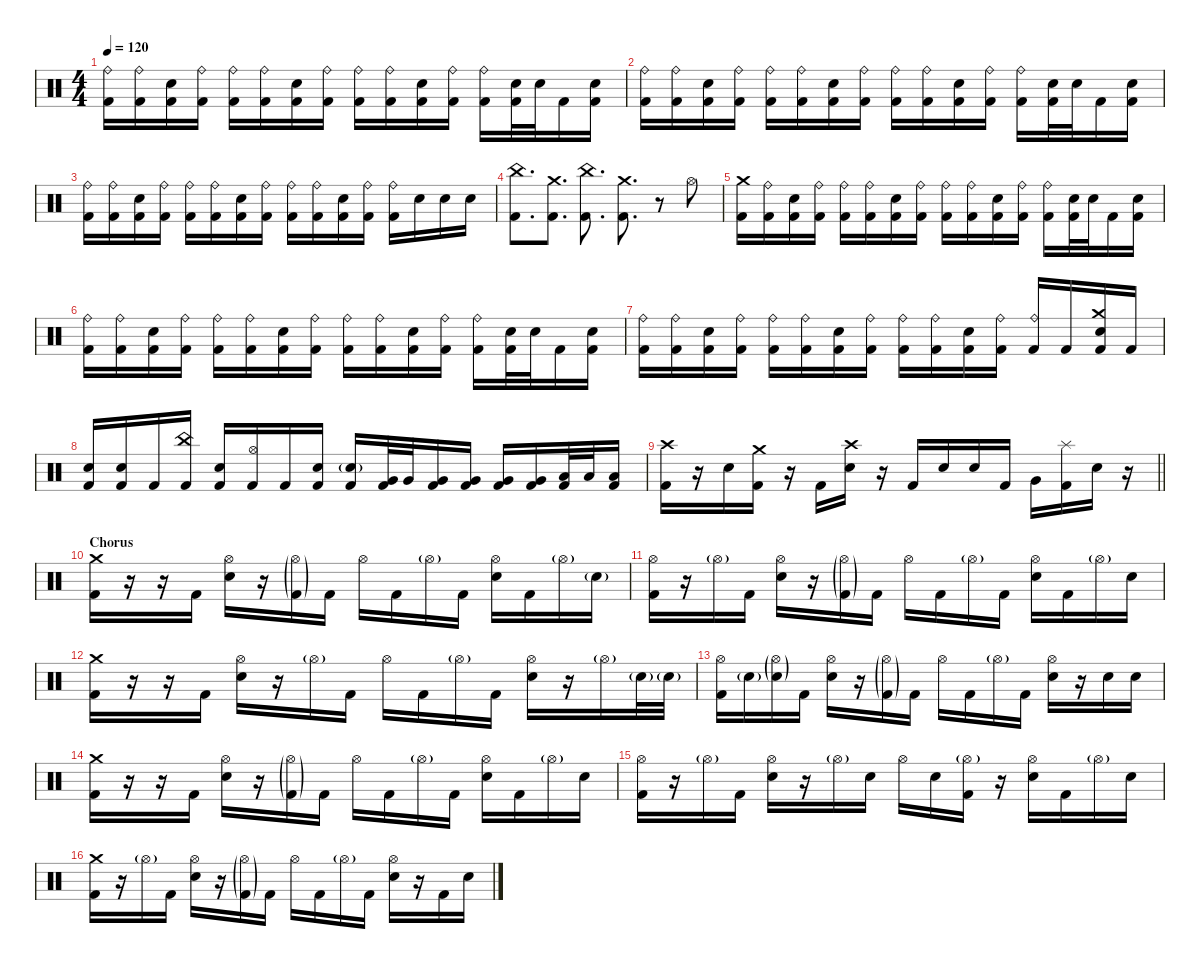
\defaultSystemsLayout 4
\hideDynamics
\bracketExtendMode nobrackets
\singleTrackTrackNamePolicy hidden
\multiTrackTrackNamePolicy hidden
\firstSystemTrackNameMode fullname
\firstSystemTrackNameOrientation horizontal
\otherSystemsTrackNameOrientation horizontal
\track ("Martin Axenrot - Drums" "drm.") {instrument percussion}
\staff {score}
\articulation defaults
\ts (4 4)
\tempo 120
\clef neutral
\ks c
("Ride (bell)" "Kick (hit) 2").16{dy mf beam Down} ("Ride (bell)" "Kick (hit) 2").16{dy f beam Down} ("Snare (hit) 2" "Kick (hit) 2").16{beam Down} ("Ride (bell)" "Kick (hit) 2").16{beam Down} ("Ride (bell)" "Kick (hit) 2").16{dy mf beam Down} ("Ride (bell)" "Kick (hit) 2").16{dy f beam Down} ("Snare (hit) 2" "Kick (hit) 2").16{beam Down} ("Ride (bell)" "Kick (hit) 2").16{beam Down} ("Ride (bell)" "Kick (hit) 2").16{dy mf beam Down} ("Ride (bell)" "Kick (hit) 2").16{dy f beam Down} ("Snare (hit) 2" "Kick (hit) 2").16{beam Down} ("Ride (bell)" "Kick (hit) 2").16{dy mf beam Down} ("Ride (bell)" "Kick (hit) 2").16{dy f beam Down} ("Snare (hit) 2" "Kick (hit) 2").32{beam Down} "Snare (hit) 2".32{beam Down} "Kick (hit) 2".16{beam Down} ("Snare (hit) 2" "Kick (hit) 2").16{beam Down} |
("Ride (bell)" "Kick (hit) 2").16{dy mf beam Down} ("Ride (bell)" "Kick (hit) 2").16{dy f beam Down} ("Snare (hit) 2" "Kick (hit) 2").16{beam Down} ("Ride (bell)" "Kick (hit) 2").16{beam Down} ("Ride (bell)" "Kick (hit) 2").16{dy mf beam Down} ("Ride (bell)" "Kick (hit) 2").16{dy f beam Down} ("Snare (hit) 2" "Kick (hit) 2").16{beam Down} ("Ride (bell)" "Kick (hit) 2").16{beam Down} ("Ride (bell)" "Kick (hit) 2").16{dy mf beam Down} ("Ride (bell)" "Kick (hit) 2").16{dy f beam Down} ("Snare (hit) 2" "Kick (hit) 2").16{beam Down} ("Ride (bell)" "Kick (hit) 2").16{dy mf beam Down} ("Ride (bell)" "Kick (hit) 2").16{dy f beam Down} ("Snare (hit) 2" "Kick (hit) 2").32{beam Down} "Snare (hit) 2".32{beam Down} "Kick (hit) 2".16{beam Down} ("Snare (hit) 2" "Kick (hit) 2").16{beam Down} |
("Ride (bell)" "Kick (hit) 2").16{dy mf beam Down} ("Ride (bell)" "Kick (hit) 2").16{dy f beam Down} ("Snare (hit) 2" "Kick (hit) 2").16{beam Down} ("Ride (bell)" "Kick (hit) 2").16{beam Down} ("Ride (bell)" "Kick (hit) 2").16{dy mf beam Down} ("Ride (bell)" "Kick (hit) 2").16{dy f beam Down} ("Snare (hit) 2" "Kick (hit) 2").16{beam Down} ("Ride (bell)" "Kick (hit) 2").16{beam Down} ("Ride (bell)" "Kick (hit) 2").16{dy mf beam Down} ("Ride (bell)" "Kick (hit) 2").16{dy f beam Down} ("Snare (hit) 2" "Kick (hit) 2").16{beam Down} ("Ride (bell)" "Kick (hit) 2").16{dy mf beam Down} ("Ride (bell)" "Kick (hit) 2").16{dy f beam Down} "Snare (hit) 2".16{beam Down} "Snare (hit) 2".16{beam Down} "Snare (hit) 2".16{beam Down} |
("China (hit)" "Kick (hit) 2").8{d beam Down} ("Crash medium (hit)" "Kick (hit) 2").8{d beam Down} ("China (hit)" "Kick (hit) 2").8{d beam Down} ("Crash medium (hit)" "Kick (hit) 2").8{d beam Down} r.8{beam Down} "Hi-Hat (open)".8{beam Down} |
("Crash medium (hit)" "Kick (hit) 2").16{beam Down} ("Ride (bell)" "Kick (hit) 2").16{beam Down} ("Snare (hit) 2" "Kick (hit) 2").16{beam Down} ("Ride (bell)" "Kick (hit) 2").16{beam Down} ("Ride (bell)" "Kick (hit) 2").16{dy mf beam Down} ("Ride (bell)" "Kick (hit) 2").16{dy f beam Down} ("Snare (hit) 2" "Kick (hit) 2").16{beam Down} ("Ride (bell)" "Kick (hit) 2").16{beam Down} ("Ride (bell)" "Kick (hit) 2").16{dy mf beam Down} ("Ride (bell)" "Kick (hit) 2").16{dy f beam Down} ("Snare (hit) 2" "Kick (hit) 2").16{beam Down} ("Ride (bell)" "Kick (hit) 2").16{dy mf beam Down} ("Ride (bell)" "Kick (hit) 2").16{dy f beam Down} ("Snare (hit) 2" "Kick (hit) 2").32{beam Down} "Snare (hit) 2".32{beam Down} "Kick (hit) 2".16{beam Down} ("Snare (hit) 2" "Kick (hit) 2").16{beam Down} |
("Ride (bell)" "Kick (hit) 2").16{dy mf beam Down} ("Ride (bell)" "Kick (hit) 2").16{dy f beam Down} ("Snare (hit) 2" "Kick (hit) 2").16{beam Down} ("Ride (bell)" "Kick (hit) 2").16{beam Down} ("Ride (bell)" "Kick (hit) 2").16{dy mf beam Down} ("Ride (bell)" "Kick (hit) 2").16{dy f beam Down} ("Snare (hit) 2" "Kick (hit) 2").16{beam Down} ("Ride (bell)" "Kick (hit) 2").16{beam Down} ("Ride (bell)" "Kick (hit) 2").16{dy mf beam Down} ("Ride (bell)" "Kick (hit) 2").16{dy f beam Down} ("Snare (hit) 2" "Kick (hit) 2").16{beam Down} ("Ride (bell)" "Kick (hit) 2").16{dy mf beam Down} ("Ride (bell)" "Kick (hit) 2").16{dy f beam Down} ("Snare (hit) 2" "Kick (hit) 2").32{beam Down} "Snare (hit) 2".32{beam Down} "Kick (hit) 2".16{beam Down} ("Snare (hit) 2" "Kick (hit) 2").16{beam Down} |
("Ride (bell)" "Kick (hit) 2").16{dy mf beam Down} ("Ride (bell)" "Kick (hit) 2").16{dy f beam Down} ("Snare (hit) 2" "Kick (hit) 2").16{beam Down} ("Ride (bell)" "Kick (hit) 2").16{beam Down} ("Ride (bell)" "Kick (hit) 2").16{dy mf beam Down} ("Ride (bell)" "Kick (hit) 2").16{dy f beam Down} ("Snare (hit) 2" "Kick (hit) 2").16{beam Down} ("Ride (bell)" "Kick (hit) 2").16{beam Down} ("Ride (bell)" "Kick (hit) 2").16{dy mf beam Down} ("Ride (bell)" "Kick (hit) 2").16{dy f beam Down} ("Snare (hit) 2" "Kick (hit) 2").16{beam Down} ("Ride (bell)" "Kick (hit) 2").16{dy mf beam Down} ("Ride (bell)" "Kick (hit) 2").16{beam Up} "Kick (hit) 2".16{dy f beam Up} ("Crash medium (hit)" "Snare (hit) 2" "Kick (hit) 2").16{beam Up} "Kick (hit) 2".16{beam Up} |
("Snare (hit) 2" "Kick (hit) 2").16{beam Up} ("Snare (hit) 2" "Kick (hit) 2").16{beam Up} "Kick (hit) 2".16{beam Up} ("China (hit)" "Kick (hit) 2").16{dy mf beam Up} ("Snare (hit) 2" "Kick (hit) 2").16{dy f beam Up} ("Hi-Hat (open)" "Kick (hit) 2").16{beam Up} "Kick (hit) 2".16{beam Up} ("Snare (hit) 2" "Kick (hit) 2").16{beam Up} ("Snare (hit) 2"{g} "Kick (hit) 2").16{beam Up} ("Very Low Tom (hit)" "Kick (hit) 2").32{dy ff beam Up} "Very Low Tom (hit)".32{dy mf beam Up} ("Very Low Tom (hit)" "Kick (hit) 2").16{dy f beam Up} ("Very Low Tom (hit)" "Kick (hit) 2").16{dy ff beam Up} ("Very Low Tom (hit)" "Kick (hit) 2").16{dy fff beam Up} ("Very Low Tom (hit)" "Kick (hit) 2").16{beam Up} ("Low Floor Tom (hit)" "Kick (hit) 2").32{dy ff beam Up} "Low Floor Tom (hit)".32{dy mf beam Up} ("Low Floor Tom (hit)" "Kick (hit) 2").16{dy f beam Up} |
\barLineRight lightlight
("Crash high (hit)" "Kick (hit) 2").16{beam Down} r.16{beam Down} "Snare (hit) 2".16{beam Down} ("Crash medium (hit)" "Kick (hit) 2").16{beam Down} r.16{beam Down} "Kick (hit) 2".16{beam Down} ("Crash high (hit)" "Snare (hit) 2").16{beam Down} r.16{beam Down} "Kick (hit) 2".16{beam Up} "Snare (hit) 2".16{beam Up} "Snare (hit) 2".16{beam Up} "Kick (hit) 2".16{beam Up} "Very Low Tom (hit)".16{dy fff beam Down} ("Splash (hit)" "Kick (hit) 2").16{dy f beam Down} "Snare (hit) 2".16{beam Down} r.16{beam Down} |
\section ("" "Chorus")
("Crash medium (hit)" "Kick (hit) 2").16{beam Down} r.16{beam Down} r.16{beam Down} "Kick (hit) 2".16{beam Down} ("Hi-Hat (open)" "Snare (hit) 2").16{beam Down} r.16{beam Down} ("Hi-Hat (open)"{g} "Kick (hit) 2"{g}).16{dy mf beam Down} "Kick (hit) 2".16{dy f beam Down} "Hi-Hat (open)".16{beam Down} "Kick (hit) 2".16{beam Down} "Hi-Hat (open)"{g}.16{dy mf beam Down} "Kick (hit) 2".16{dy f beam Down} ("Hi-Hat (open)" "Snare (hit) 2").16{beam Down} "Kick (hit) 2".16{beam Down} "Hi-Hat (open)"{g}.16{dy mf beam Down} "Snare (hit) 2"{g}.16{beam Down} |
("Hi-Hat (open)" "Kick (hit) 2").16{dy f beam Down} r.16{beam Down} "Hi-Hat (open)"{g}.16{dy mf beam Down} "Kick (hit) 2".16{dy f beam Down} ("Hi-Hat (open)" "Snare (hit) 2").16{beam Down} r.16{beam Down} ("Hi-Hat (open)"{g} "Kick (hit) 2"{g}).16{dy mf beam Down} "Kick (hit) 2".16{dy f beam Down} "Hi-Hat (open)".16{beam Down} "Kick (hit) 2".16{beam Down} "Hi-Hat (open)"{g}.16{dy mf beam Down} "Kick (hit) 2".16{dy f beam Down} ("Hi-Hat (open)" "Snare (hit) 2").16{beam Down} "Kick (hit) 2".16{beam Down} "Hi-Hat (open)"{g}.16{dy mf beam Down} "Snare (hit) 2".16{dy f beam Down} |
("Crash medium (hit)" "Kick (hit) 2").16{beam Down} r.16{beam Down} r.16{beam Down} "Kick (hit) 2".16{beam Down} ("Hi-Hat (open)" "Snare (hit) 2").16{beam Down} r.16{beam Down} "Hi-Hat (open)"{g}.16{dy mf beam Down} "Kick (hit) 2".16{dy f beam Down} "Hi-Hat (open)".16{beam Down} "Kick (hit) 2".16{beam Down} "Hi-Hat (open)"{g}.16{dy mf beam Down} "Kick (hit) 2".16{dy f beam Down} ("Hi-Hat (open)" "Snare (hit) 2").16{beam Down} r.16{beam Down} "Hi-Hat (open)"{g}.16{dy mf beam Down} "Snare (hit) 2"{g}.32{beam Down} "Snare (hit) 2"{g}.32{beam Down} |
("Hi-Hat (open)" "Kick (hit) 2").16{dy f beam Down} "Snare (hit) 2"{g}.16{dy mf beam Down} ("Hi-Hat (open)"{g} "Snare (hit) 2"{g}).16{beam Down} "Kick (hit) 2".16{dy f beam Down} ("Hi-Hat (open)" "Snare (hit) 2").16{beam Down} r.16{beam Down} ("Hi-Hat (open)"{g} "Kick (hit) 2"{g}).16{dy mf beam Down} "Kick (hit) 2".16{dy f beam Down} "Hi-Hat (open)".16{beam Down} "Kick (hit) 2".16{beam Down} "Hi-Hat (open)"{g}.16{dy mf beam Down} "Kick (hit) 2".16{dy f beam Down} ("Hi-Hat (open)" "Snare (hit) 2").16{beam Down} r.16{beam Down} "Snare (hit) 2".16{beam Down} "Snare (hit) 2".16{beam Down} |
("Crash medium (hit)" "Kick (hit) 2").16{beam Down} r.16{beam Down} r.16{beam Down} "Kick (hit) 2".16{beam Down} ("Hi-Hat (open)" "Snare (hit) 2").16{beam Down} r.16{beam Down} ("Hi-Hat (open)"{g} "Kick (hit) 2"{g}).16{dy mf beam Down} "Kick (hit) 2".16{dy f beam Down} "Hi-Hat (open)".16{beam Down} "Kick (hit) 2".16{beam Down} "Hi-Hat (open)"{g}.16{dy mf beam Down} "Kick (hit) 2".16{dy f beam Down} ("Hi-Hat (open)" "Snare (hit) 2").16{beam Down} "Kick (hit) 2".16{beam Down} "Hi-Hat (open)"{g}.16{dy mf beam Down} "Snare (hit) 2".16{dy f beam Down} |
("Hi-Hat (open)" "Kick (hit) 2").16{beam Down} r.16{beam Down} "Hi-Hat (open)"{g}.16{dy mf beam Down} "Kick (hit) 2".16{dy f beam Down} ("Hi-Hat (open)" "Snare (hit) 2").16{beam Down} r.16{beam Down} "Hi-Hat (open)"{g}.16{dy mf beam Down} "Snare (hit) 2".16{dy f beam Down} "Hi-Hat (open)".16{beam Down} "Snare (hit) 2".16{beam Down} ("Hi-Hat (open)"{g} "Kick (hit) 2").16{beam Down} r.16{beam Down} ("Hi-Hat (open)" "Snare (hit) 2").16{beam Down} "Kick (hit) 2".16{beam Down} "Hi-Hat (open)"{g}.16{dy mf beam Down} "Snare (hit) 2".16{dy f beam Down} |
("Crash medium (hit)" "Kick (hit) 2").16{beam Down} r.16{beam Down} "Hi-Hat (open)"{g}.16{dy mf beam Down} "Kick (hit) 2".16{dy f beam Down} ("Hi-Hat (open)" "Snare (hit) 2").16{beam Down} r.16{beam Down} ("Hi-Hat (open)"{g} "Kick (hit) 2"{g}).16{dy mf beam Down} "Kick (hit) 2".16{dy f beam Down} "Hi-Hat (open)".16{beam Down} "Kick (hit) 2".16{beam Down} "Hi-Hat (open)"{g}.16{dy mf beam Down} "Kick (hit) 2".16{dy f beam Down} ("Hi-Hat (open)" "Snare (hit) 2").16{beam Down} r.16{beam Down} "Kick (hit) 2".16{beam Down} "Snare (hit) 2".16{beam Down}
